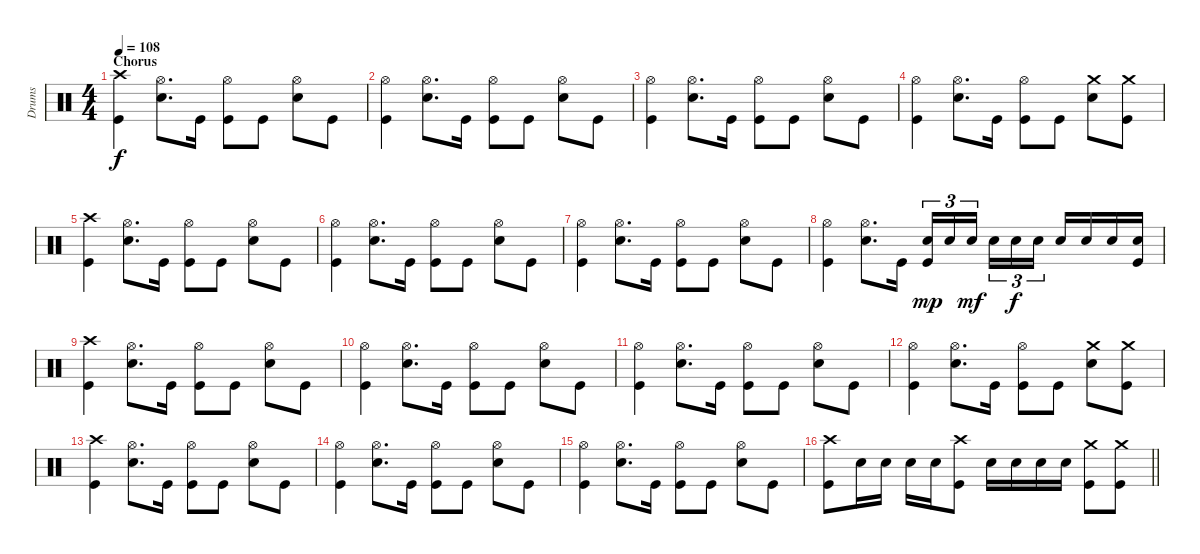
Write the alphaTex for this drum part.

\track ("Drums" "Drums") {instrument percussion}
\staff {score}
\articulation defaults
\ts (4 4)
\section ("" "Chorus")
\tempo 108
\clef neutral
\ks c
("Crash high (hit)" "Kick (hit)").4{dy f} ("Hi-Hat (open)" "Electric Snare (hit)").8{d} "Kick (hit)".16 ("Hi-Hat (open)" "Kick (hit)").8 "Kick (hit)".8 ("Hi-Hat (open)" "Electric Snare (hit)").8 "Kick (hit)".8 |
("Hi-Hat (open)" "Kick (hit)").4 ("Hi-Hat (open)" "Electric Snare (hit)").8{d} "Kick (hit)".16 ("Hi-Hat (open)" "Kick (hit)").8 "Kick (hit)".8 ("Hi-Hat (open)" "Electric Snare (hit)").8 "Kick (hit)".8 |
("Hi-Hat (open)" "Kick (hit)").4 ("Hi-Hat (open)" "Electric Snare (hit)").8{d} "Kick (hit)".16 ("Hi-Hat (open)" "Kick (hit)").8 "Kick (hit)".8 ("Hi-Hat (open)" "Electric Snare (hit)").8 "Kick (hit)".8 |
("Hi-Hat (open)" "Kick (hit)").4 ("Hi-Hat (open)" "Electric Snare (hit)").8{d} "Kick (hit)".16 ("Hi-Hat (open)" "Kick (hit)").8 "Kick (hit)".8 ("Crash medium (hit)" "Electric Snare (hit)").8 ("Crash medium (hit)" "Kick (hit)").8 |
("Crash high (hit)" "Kick (hit)").4 ("Hi-Hat (open)" "Electric Snare (hit)").8{d} "Kick (hit)".16 ("Hi-Hat (open)" "Kick (hit)").8 "Kick (hit)".8 ("Hi-Hat (open)" "Electric Snare (hit)").8 "Kick (hit)".8 |
("Hi-Hat (open)" "Kick (hit)").4 ("Hi-Hat (open)" "Electric Snare (hit)").8{d} "Kick (hit)".16 ("Hi-Hat (open)" "Kick (hit)").8 "Kick (hit)".8 ("Hi-Hat (open)" "Electric Snare (hit)").8 "Kick (hit)".8 |
("Hi-Hat (open)" "Kick (hit)").4 ("Hi-Hat (open)" "Electric Snare (hit)").8{d} "Kick (hit)".16 ("Hi-Hat (open)" "Kick (hit)").8 "Kick (hit)".8 ("Hi-Hat (open)" "Electric Snare (hit)").8 "Kick (hit)".8 |
("Hi-Hat (open)" "Kick (hit)").4 ("Hi-Hat (open)" "Electric Snare (hit)").8{d} "Kick (hit)".16 ("Electric Snare (hit)" "Kick (hit)").16{tu (3 2) dy mp} "Electric Snare (hit)".16{tu (3 2)} "Electric Snare (hit)".16{tu (3 2) dy mf beam splitsecondary} "Electric Snare (hit)".16{tu (3 2)} "Electric Snare (hit)".16{tu (3 2) dy f} "Electric Snare (hit)".16{tu (3 2)} "Electric Snare (hit)".16 "Electric Snare (hit)".16 "Electric Snare (hit)".16 ("Electric Snare (hit)" "Kick (hit)").16 |
("Crash high (hit)" "Kick (hit)").4 ("Hi-Hat (open)" "Electric Snare (hit)").8{d} "Kick (hit)".16 ("Hi-Hat (open)" "Kick (hit)").8 "Kick (hit)".8 ("Hi-Hat (open)" "Electric Snare (hit)").8 "Kick (hit)".8 |
("Hi-Hat (open)" "Kick (hit)").4 ("Hi-Hat (open)" "Electric Snare (hit)").8{d} "Kick (hit)".16 ("Hi-Hat (open)" "Kick (hit)").8 "Kick (hit)".8 ("Hi-Hat (open)" "Electric Snare (hit)").8 "Kick (hit)".8 |
("Hi-Hat (open)" "Kick (hit)").4 ("Hi-Hat (open)" "Electric Snare (hit)").8{d} "Kick (hit)".16 ("Hi-Hat (open)" "Kick (hit)").8 "Kick (hit)".8 ("Hi-Hat (open)" "Electric Snare (hit)").8 "Kick (hit)".8 |
("Hi-Hat (open)" "Kick (hit)").4 ("Hi-Hat (open)" "Electric Snare (hit)").8{d} "Kick (hit)".16 ("Hi-Hat (open)" "Kick (hit)").8 "Kick (hit)".8 ("Crash medium (hit)" "Electric Snare (hit)").8 ("Crash medium (hit)" "Kick (hit)").8 |
("Crash high (hit)" "Kick (hit)").4 ("Hi-Hat (open)" "Electric Snare (hit)").8{d} "Kick (hit)".16 ("Hi-Hat (open)" "Kick (hit)").8 "Kick (hit)".8 ("Hi-Hat (open)" "Electric Snare (hit)").8 "Kick (hit)".8 |
("Hi-Hat (open)" "Kick (hit)").4 ("Hi-Hat (open)" "Electric Snare (hit)").8{d} "Kick (hit)".16 ("Hi-Hat (open)" "Kick (hit)").8 "Kick (hit)".8 ("Hi-Hat (open)" "Electric Snare (hit)").8 "Kick (hit)".8 |
("Hi-Hat (open)" "Kick (hit)").4 ("Hi-Hat (open)" "Electric Snare (hit)").8{d} "Kick (hit)".16 ("Hi-Hat (open)" "Kick (hit)").8 "Kick (hit)".8 ("Hi-Hat (open)" "Electric Snare (hit)").8 "Kick (hit)".8 |
\barLineRight lightlight
("Crash high (hit)" "Kick (hit)").8 "Electric Snare (hit)".16 "Electric Snare (hit)".16 "Electric Snare (hit)".16 "Electric Snare (hit)".16 ("Crash high (hit)" "Kick (hit)").8 "Electric Snare (hit)".16 "Electric Snare (hit)".16 "Electric Snare (hit)".16 "Electric Snare (hit)".16 ("Crash medium (hit)" "Kick (hit)").8 ("Crash medium (hit)" "Kick (hit)").8
